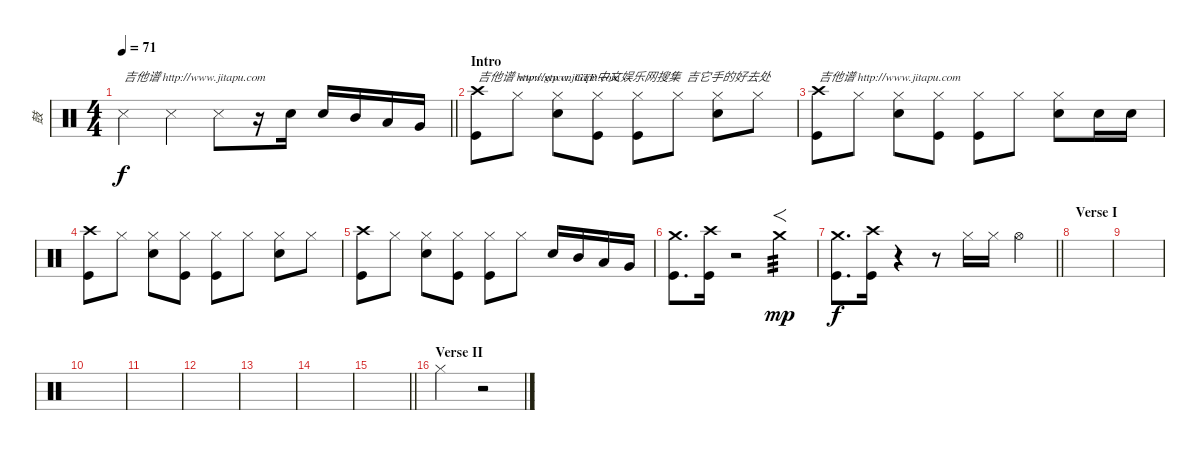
\track ("鼓" "鼓") {instrument percussion}
\staff {score}
\articulation defaults
\ts (4 4)
\tempo 71
\clef neutral
\barLineRight lightlight
\ks c "Snare (side stick) 3".4{txt "吉他谱 http://www.jitapu.com" dy f} "Snare (side stick) 3".4 "Snare (side stick) 3".8
r.16 "Electric Snare (hit)".16 "Electric Snare (hit)".16 "Mid Tom (hit)".16 "Low Tom (hit)".16 "Very Low Tom (hit)".16 |
\section ("" "Intro")
("Crash high (hit)" "Kick (hit)").8{txt "吉他谱 http://www.jitapu.com"} "Hi-Hat (closed)".8{txt "www.gtp.cn GTP中文娱乐网搜集  吉它手的好去处"} ("Hi-Hat (closed)" "Electric Snare (hit)").8 ("Hi-Hat (closed)" "Kick (hit)").8 ("Hi-Hat (closed)" "Kick (hit)").8 "Hi-Hat (closed)".8 ("Hi-Hat (closed)" "Electric Snare (hit)").8 "Hi-Hat (closed)".8 |
("Crash high (hit)" "Kick (hit)").8{txt "吉他谱 http://www.jitapu.com"} "Hi-Hat (closed)".8 ("Hi-Hat (closed)" "Electric Snare (hit)").8 ("Hi-Hat (closed)" "Kick (hit)").8 ("Hi-Hat (closed)" "Kick (hit)").8 "Hi-Hat (closed)".8 ("Hi-Hat (closed)" "Electric Snare (hit)").8 "Electric Snare (hit)".16 "Electric Snare (hit)".16 |
("Crash high (hit)" "Kick (hit)").8 "Hi-Hat (closed)".8 ("Hi-Hat (closed)" "Electric Snare (hit)").8 ("Hi-Hat (closed)" "Kick (hit)").8 ("Hi-Hat (closed)" "Kick (hit)").8 "Hi-Hat (closed)".8 ("Hi-Hat (closed)" "Electric Snare (hit)").8 "Hi-Hat (closed)".8 |
("Crash high (hit)" "Kick (hit)").8 "Hi-Hat (closed)".8 ("Hi-Hat (closed)" "Electric Snare (hit)").8 ("Hi-Hat (closed)" "Kick (hit)").8 ("Hi-Hat (closed)" "Kick (hit)").8 "Hi-Hat (closed)".8 "Electric Snare (hit)".16 "Mid Tom (hit)".16 "Low Tom (hit)".16 "Very Low Tom (hit)".16 |
("Crash medium (hit)" "Kick (hit)").8{d} ("Crash high (hit)" "Kick (hit)").16 r.2 "Crash medium (hit)".4{f tp 3 dy mp} |
\barLineRight lightlight
("Crash medium (hit)" "Kick (hit)").8{d dy f} ("Crash high (hit)" "Kick (hit)").16 r.4 r.8 "Hi-Hat (closed)".16 "Hi-Hat (closed)".16 "Hi-Hat (open)".4 |
\section ("" "Verse I")
|
|
|
|
|
|
|
\barLineRight lightlight
|
\section ("" "Verse II")
"Hi-Hat (closed)".2 r.2
